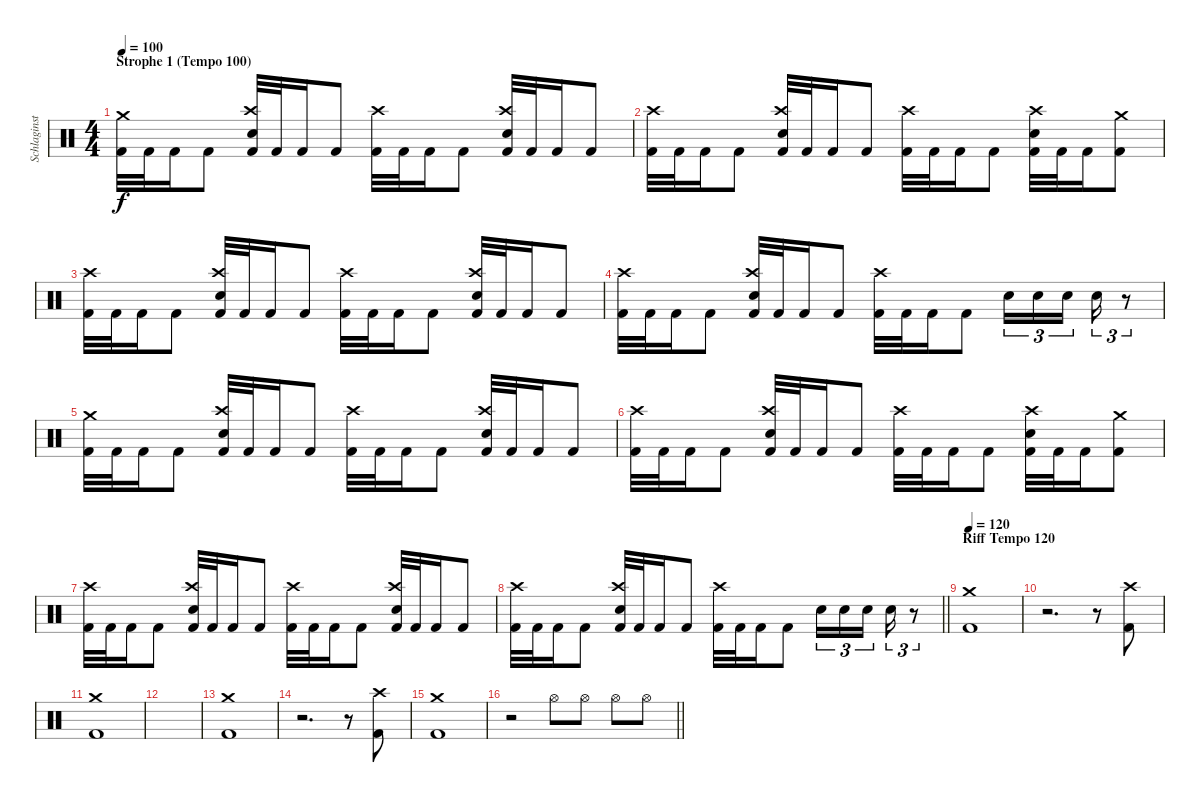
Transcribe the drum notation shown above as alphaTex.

\track ("Schlaginstrumente - Auswahl" "Schlaginst") {instrument percussion}
\staff {score}
\articulation defaults
\ts (4 4)
\section ("" "Strophe 1 (Tempo 100)")
\tempo 100
\clef neutral
\ks c
("Crash medium (hit)" "Kick (hit) 2").32{dy f} "Kick (hit) 2".32 "Kick (hit) 2".16 "Kick (hit) 2".8 ("Crash high (hit)" "Electric Snare (hit)" "Kick (hit) 2").32 "Kick (hit) 2".32 "Kick (hit) 2".16 "Kick (hit) 2".8 ("Crash high (hit)" "Kick (hit) 2").32 "Kick (hit) 2".32 "Kick (hit) 2".16 "Kick (hit) 2".8 ("Crash high (hit)" "Electric Snare (hit)" "Kick (hit) 2").32 "Kick (hit) 2".32 "Kick (hit) 2".16 "Kick (hit) 2".8 |
("Crash high (hit)" "Kick (hit) 2").32 "Kick (hit) 2".32 "Kick (hit) 2".16 "Kick (hit) 2".8 ("Crash high (hit)" "Electric Snare (hit)" "Kick (hit) 2").32 "Kick (hit) 2".32 "Kick (hit) 2".16 "Kick (hit) 2".8 ("Crash high (hit)" "Kick (hit) 2").32 "Kick (hit) 2".32 "Kick (hit) 2".16 "Kick (hit) 2".8 ("Crash high (hit)" "Electric Snare (hit)" "Kick (hit) 2").32 "Kick (hit) 2".32 "Kick (hit) 2".16 ("Crash medium (hit)" "Kick (hit) 2").8 |
("Crash high (hit)" "Kick (hit) 2").32 "Kick (hit) 2".32 "Kick (hit) 2".16 "Kick (hit) 2".8 ("Crash high (hit)" "Electric Snare (hit)" "Kick (hit) 2").32 "Kick (hit) 2".32 "Kick (hit) 2".16 "Kick (hit) 2".8 ("Crash high (hit)" "Kick (hit) 2").32 "Kick (hit) 2".32 "Kick (hit) 2".16 "Kick (hit) 2".8 ("Crash high (hit)" "Electric Snare (hit)" "Kick (hit) 2").32 "Kick (hit) 2".32 "Kick (hit) 2".16 "Kick (hit) 2".8 |
("Crash high (hit)" "Kick (hit) 2").32 "Kick (hit) 2".32 "Kick (hit) 2".16 "Kick (hit) 2".8 ("Crash high (hit)" "Electric Snare (hit)" "Kick (hit) 2").32 "Kick (hit) 2".32 "Kick (hit) 2".16 "Kick (hit) 2".8 ("Crash high (hit)" "Kick (hit) 2").32 "Kick (hit) 2".32 "Kick (hit) 2".16 "Kick (hit) 2".8 "Electric Snare (hit)".16{tu (3 2)} "Electric Snare (hit)".16{tu (3 2)} "Electric Snare (hit)".16{tu (3 2) beam splitsecondary} "Electric Snare (hit)".16{tu (3 2)} r.8{tu (3 2)} |
("Crash medium (hit)" "Kick (hit) 2").32 "Kick (hit) 2".32 "Kick (hit) 2".16 "Kick (hit) 2".8 ("Crash high (hit)" "Electric Snare (hit)" "Kick (hit) 2").32 "Kick (hit) 2".32 "Kick (hit) 2".16 "Kick (hit) 2".8 ("Crash high (hit)" "Kick (hit) 2").32 "Kick (hit) 2".32 "Kick (hit) 2".16 "Kick (hit) 2".8 ("Crash high (hit)" "Electric Snare (hit)" "Kick (hit) 2").32 "Kick (hit) 2".32 "Kick (hit) 2".16 "Kick (hit) 2".8 |
("Crash high (hit)" "Kick (hit) 2").32 "Kick (hit) 2".32 "Kick (hit) 2".16 "Kick (hit) 2".8 ("Crash high (hit)" "Electric Snare (hit)" "Kick (hit) 2").32 "Kick (hit) 2".32 "Kick (hit) 2".16 "Kick (hit) 2".8 ("Crash high (hit)" "Kick (hit) 2").32 "Kick (hit) 2".32 "Kick (hit) 2".16 "Kick (hit) 2".8 ("Crash high (hit)" "Electric Snare (hit)" "Kick (hit) 2").32 "Kick (hit) 2".32 "Kick (hit) 2".16 ("Crash medium (hit)" "Kick (hit) 2").8 |
("Crash high (hit)" "Kick (hit) 2").32 "Kick (hit) 2".32 "Kick (hit) 2".16 "Kick (hit) 2".8 ("Crash high (hit)" "Electric Snare (hit)" "Kick (hit) 2").32 "Kick (hit) 2".32 "Kick (hit) 2".16 "Kick (hit) 2".8 ("Crash high (hit)" "Kick (hit) 2").32 "Kick (hit) 2".32 "Kick (hit) 2".16 "Kick (hit) 2".8 ("Crash high (hit)" "Electric Snare (hit)" "Kick (hit) 2").32 "Kick (hit) 2".32 "Kick (hit) 2".16 "Kick (hit) 2".8 |
\barLineRight lightlight
("Crash high (hit)" "Kick (hit) 2").32 "Kick (hit) 2".32 "Kick (hit) 2".16 "Kick (hit) 2".8 ("Crash high (hit)" "Electric Snare (hit)" "Kick (hit) 2").32 "Kick (hit) 2".32 "Kick (hit) 2".16 "Kick (hit) 2".8 ("Crash high (hit)" "Kick (hit) 2").32 "Kick (hit) 2".32 "Kick (hit) 2".16 "Kick (hit) 2".8 "Electric Snare (hit)".16{tu (3 2)} "Electric Snare (hit)".16{tu (3 2)} "Electric Snare (hit)".16{tu (3 2) beam splitsecondary} "Electric Snare (hit)".16{tu (3 2)} r.8{tu (3 2)} |
\section ("" "Riff Tempo 120")
\tempo 120
("Crash medium (hit)" "Kick (hit) 2").1 |
r.2{d} r.8 ("Crash high (hit)" "Kick (hit) 2").8 |
("Crash medium (hit)" "Kick (hit) 2").1 |
|
("Crash medium (hit)" "Kick (hit) 2").1 |
r.2{d} r.8 ("Crash high (hit)" "Kick (hit) 2").8 |
("Crash medium (hit)" "Kick (hit) 2").1 |
\barLineRight lightlight
r.2 "Hi-Hat (open)".8 "Hi-Hat (open)".8 "Hi-Hat (open)".8 "Hi-Hat (open)".8
